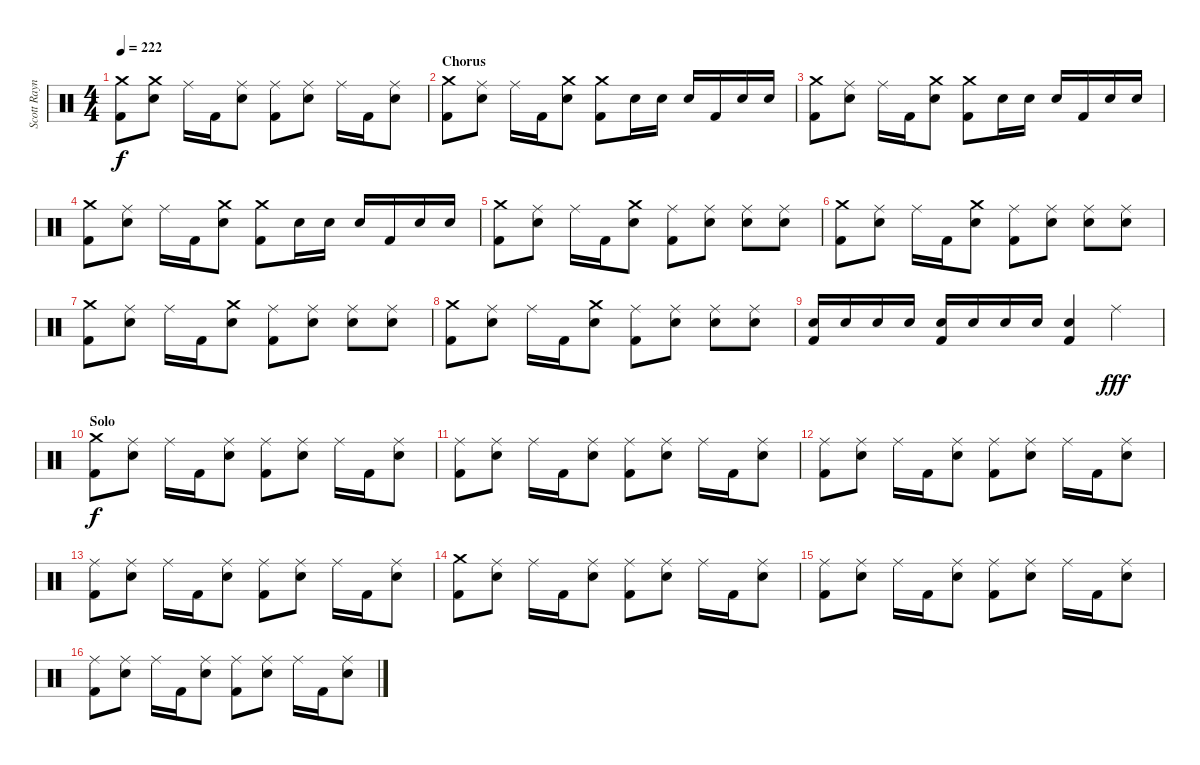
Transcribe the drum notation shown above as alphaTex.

\track ("Scott Raynor - Bateria/Drums" "Scott Rayn") {instrument percussion}
\staff {score}
\articulation defaults
\ts (4 4)
\tempo 222
\clef neutral
\ks c
("Crash medium (hit)" "Kick (hit) 2").8{dy f} ("Crash medium (hit)" "Electric Snare (hit)").8 "Ride (middle)".16 "Kick (hit) 2".16 ("Ride (middle)" "Electric Snare (hit)").8 ("Ride (middle)" "Kick (hit) 2").8 ("Ride (middle)" "Electric Snare (hit)").8 "Ride (middle)".16 "Kick (hit) 2".16 ("Ride (middle)" "Electric Snare (hit)").8 |
\section ("" "Chorus")
("Crash medium (hit)" "Kick (hit) 2").8 ("Ride (middle)" "Electric Snare (hit)").8 "Ride (middle)".16 "Kick (hit) 2".16 ("Crash medium (hit)" "Electric Snare (hit)").8 ("Crash medium (hit)" "Kick (hit) 2").8 "Electric Snare (hit)".16 "Electric Snare (hit)".16 "Electric Snare (hit)".16 "Kick (hit) 2".16 "Electric Snare (hit)".16 "Electric Snare (hit)".16 |
("Crash medium (hit)" "Kick (hit) 2").8 ("Ride (middle)" "Electric Snare (hit)").8 "Ride (middle)".16 "Kick (hit) 2".16 ("Crash medium (hit)" "Electric Snare (hit)").8 ("Crash medium (hit)" "Kick (hit) 2").8 "Electric Snare (hit)".16 "Electric Snare (hit)".16 "Electric Snare (hit)".16 "Kick (hit) 2".16 "Electric Snare (hit)".16 "Electric Snare (hit)".16 |
("Crash medium (hit)" "Kick (hit) 2").8 ("Ride (middle)" "Electric Snare (hit)").8 "Ride (middle)".16 "Kick (hit) 2".16 ("Crash medium (hit)" "Electric Snare (hit)").8 ("Crash medium (hit)" "Kick (hit) 2").8 "Electric Snare (hit)".16 "Electric Snare (hit)".16 "Electric Snare (hit)".16 "Kick (hit) 2".16 "Electric Snare (hit)".16 "Electric Snare (hit)".16 |
("Crash medium (hit)" "Kick (hit) 2").8 ("Ride (middle)" "Electric Snare (hit)").8 "Ride (middle)".16 "Kick (hit) 2".16 ("Crash medium (hit)" "Electric Snare (hit)").8 ("Ride (middle)" "Kick (hit) 2").8 ("Ride (middle)" "Electric Snare (hit)").8 ("Ride (middle)" "Electric Snare (hit)").8 ("Ride (middle)" "Electric Snare (hit)").8 |
("Crash medium (hit)" "Kick (hit) 2").8 ("Ride (middle)" "Electric Snare (hit)").8 "Ride (middle)".16 "Kick (hit) 2".16 ("Crash medium (hit)" "Electric Snare (hit)").8 ("Ride (middle)" "Kick (hit) 2").8 ("Ride (middle)" "Electric Snare (hit)").8 ("Ride (middle)" "Electric Snare (hit)").8 ("Ride (middle)" "Electric Snare (hit)").8 |
("Crash medium (hit)" "Kick (hit) 2").8 ("Ride (middle)" "Electric Snare (hit)").8 "Ride (middle)".16 "Kick (hit) 2".16 ("Crash medium (hit)" "Electric Snare (hit)").8 ("Ride (middle)" "Kick (hit) 2").8 ("Ride (middle)" "Electric Snare (hit)").8 ("Ride (middle)" "Electric Snare (hit)").8 ("Ride (middle)" "Electric Snare (hit)").8 |
("Crash medium (hit)" "Kick (hit) 2").8 ("Ride (middle)" "Electric Snare (hit)").8 "Ride (middle)".16 "Kick (hit) 2".16 ("Crash medium (hit)" "Electric Snare (hit)").8 ("Ride (middle)" "Kick (hit) 2").8 ("Ride (middle)" "Electric Snare (hit)").8 ("Ride (middle)" "Electric Snare (hit)").8 ("Ride (middle)" "Electric Snare (hit)").8 |
("Electric Snare (hit)" "Kick (hit) 2").16 "Electric Snare (hit)".16 "Electric Snare (hit)".16 "Electric Snare (hit)".16 ("Electric Snare (hit)" "Kick (hit) 2").16 "Electric Snare (hit)".16 "Electric Snare (hit)".16 "Electric Snare (hit)".16 ("Electric Snare (hit)" "Kick (hit) 2").4 "Ride (middle)".4{dy fff} |
\section ("" "Solo")
("Crash medium (hit)" "Kick (hit) 2").8{dy f} ("Ride (middle)" "Electric Snare (hit)").8 "Ride (middle)".16 "Kick (hit) 2".16 ("Ride (middle)" "Electric Snare (hit)").8 ("Ride (middle)" "Kick (hit) 2").8 ("Ride (middle)" "Electric Snare (hit)").8 "Ride (middle)".16 "Kick (hit) 2".16 ("Ride (middle)" "Electric Snare (hit)").8 |
("Ride (middle)" "Kick (hit) 2").8 ("Ride (middle)" "Electric Snare (hit)").8 "Ride (middle)".16 "Kick (hit) 2".16 ("Ride (middle)" "Electric Snare (hit)").8 ("Ride (middle)" "Kick (hit) 2").8 ("Ride (middle)" "Electric Snare (hit)").8 "Ride (middle)".16 "Kick (hit) 2".16 ("Ride (middle)" "Electric Snare (hit)").8 |
("Ride (middle)" "Kick (hit) 2").8 ("Ride (middle)" "Electric Snare (hit)").8 "Ride (middle)".16 "Kick (hit) 2".16 ("Ride (middle)" "Electric Snare (hit)").8 ("Ride (middle)" "Kick (hit) 2").8 ("Ride (middle)" "Electric Snare (hit)").8 "Ride (middle)".16 "Kick (hit) 2".16 ("Ride (middle)" "Electric Snare (hit)").8 |
("Ride (middle)" "Kick (hit) 2").8 ("Ride (middle)" "Electric Snare (hit)").8 "Ride (middle)".16 "Kick (hit) 2".16 ("Ride (middle)" "Electric Snare (hit)").8 ("Ride (middle)" "Kick (hit) 2").8 ("Ride (middle)" "Electric Snare (hit)").8 "Ride (middle)".16 "Kick (hit) 2".16 ("Ride (middle)" "Electric Snare (hit)").8 |
("Crash medium (hit)" "Kick (hit) 2").8 ("Ride (middle)" "Electric Snare (hit)").8 "Ride (middle)".16 "Kick (hit) 2".16 ("Ride (middle)" "Electric Snare (hit)").8 ("Ride (middle)" "Kick (hit) 2").8 ("Ride (middle)" "Electric Snare (hit)").8 "Ride (middle)".16 "Kick (hit) 2".16 ("Ride (middle)" "Electric Snare (hit)").8 |
("Ride (middle)" "Kick (hit) 2").8 ("Ride (middle)" "Electric Snare (hit)").8 "Ride (middle)".16 "Kick (hit) 2".16 ("Ride (middle)" "Electric Snare (hit)").8 ("Ride (middle)" "Kick (hit) 2").8 ("Ride (middle)" "Electric Snare (hit)").8 "Ride (middle)".16 "Kick (hit) 2".16 ("Ride (middle)" "Electric Snare (hit)").8 |
("Ride (middle)" "Kick (hit) 2").8 ("Ride (middle)" "Electric Snare (hit)").8 "Ride (middle)".16 "Kick (hit) 2".16 ("Ride (middle)" "Electric Snare (hit)").8 ("Ride (middle)" "Kick (hit) 2").8 ("Ride (middle)" "Electric Snare (hit)").8 "Ride (middle)".16 "Kick (hit) 2".16 ("Ride (middle)" "Electric Snare (hit)").8
